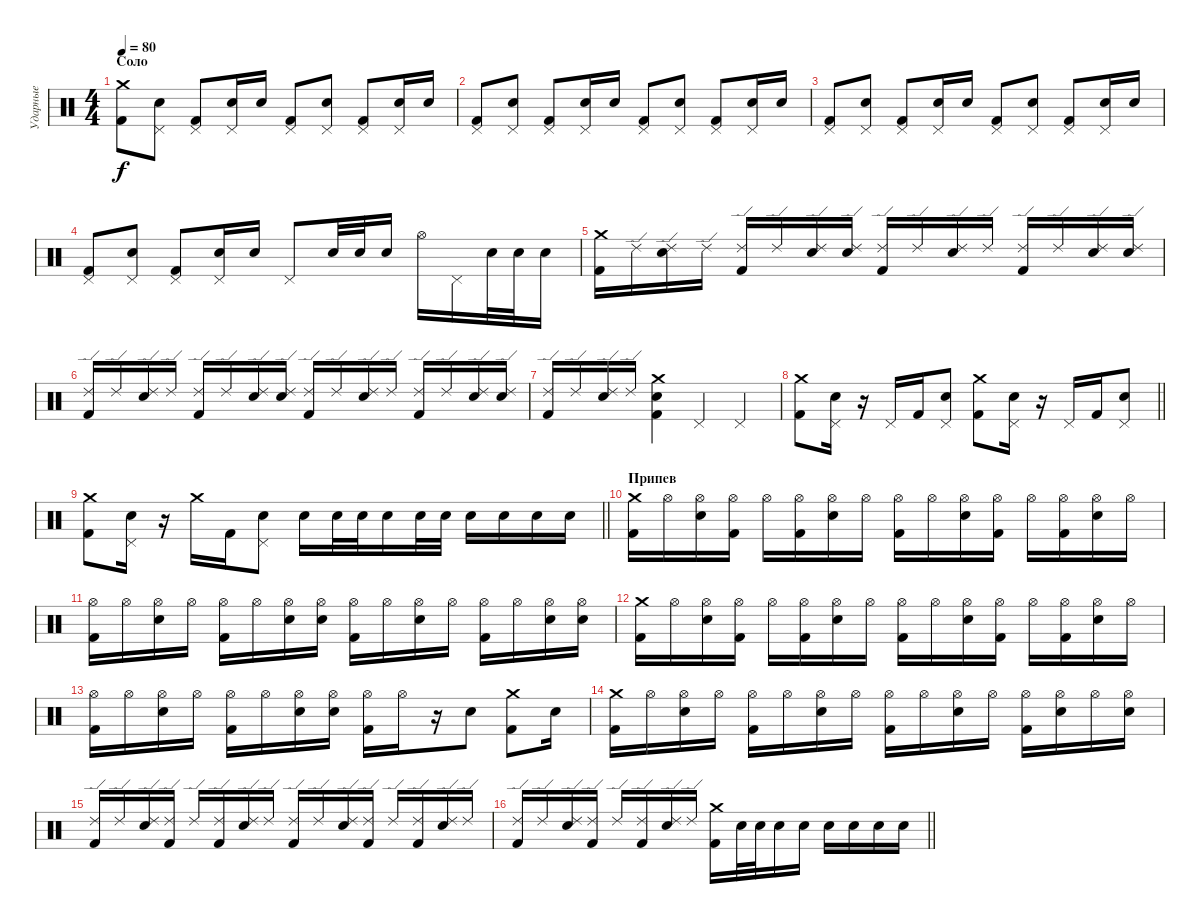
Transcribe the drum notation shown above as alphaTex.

\track ("Ударные" "Ударные") {instrument percussion}
\staff {score}
\articulation defaults
\ts (4 4)
\section ("" "Соло")
\tempo 80
\clef neutral
\ks c
("Crash medium (hit)" "Kick (hit) 2").8{dy f} ("Pedal Hi-Hat (hit)" "Electric Snare (hit)").8 ("Pedal Hi-Hat (hit)" "Kick (hit) 2").8 ("Pedal Hi-Hat (hit)" "Electric Snare (hit)").16 "Electric Snare (hit)".16 ("Pedal Hi-Hat (hit)" "Kick (hit) 2").8 ("Pedal Hi-Hat (hit)" "Electric Snare (hit)").8 ("Pedal Hi-Hat (hit)" "Kick (hit) 2").8 ("Pedal Hi-Hat (hit)" "Electric Snare (hit)").16 "Electric Snare (hit)".16 |
("Pedal Hi-Hat (hit)" "Kick (hit) 2").8 ("Pedal Hi-Hat (hit)" "Electric Snare (hit)").8 ("Pedal Hi-Hat (hit)" "Kick (hit) 2").8 ("Pedal Hi-Hat (hit)" "Electric Snare (hit)").16 "Electric Snare (hit)".16 ("Pedal Hi-Hat (hit)" "Kick (hit) 2").8 ("Pedal Hi-Hat (hit)" "Electric Snare (hit)").8 ("Pedal Hi-Hat (hit)" "Kick (hit) 2").8 ("Pedal Hi-Hat (hit)" "Electric Snare (hit)").16 "Electric Snare (hit)".16 |
("Pedal Hi-Hat (hit)" "Kick (hit) 2").8 ("Pedal Hi-Hat (hit)" "Electric Snare (hit)").8 ("Pedal Hi-Hat (hit)" "Kick (hit) 2").8 ("Pedal Hi-Hat (hit)" "Electric Snare (hit)").16 "Electric Snare (hit)".16 ("Pedal Hi-Hat (hit)" "Kick (hit) 2").8 ("Pedal Hi-Hat (hit)" "Electric Snare (hit)").8 ("Pedal Hi-Hat (hit)" "Kick (hit) 2").8 ("Pedal Hi-Hat (hit)" "Electric Snare (hit)").16 "Electric Snare (hit)".16 |
("Pedal Hi-Hat (hit)" "Kick (hit) 2").8 ("Pedal Hi-Hat (hit)" "Electric Snare (hit)").8 ("Pedal Hi-Hat (hit)" "Kick (hit) 2").8 ("Pedal Hi-Hat (hit)" "Electric Snare (hit)").16 "Electric Snare (hit)".16 "Pedal Hi-Hat (hit)".8 "Electric Snare (hit)".32 "Electric Snare (hit)".32 "Electric Snare (hit)".16 "Hi-Hat (open)".16 "Pedal Hi-Hat (hit)".16 "Electric Snare (hit)".32 "Electric Snare (hit)".32 "Electric Snare (hit)".16 |
("Crash medium (hit)" "Kick (hit) 2").16 "Ride (edge) 2".16 ("Ride (edge) 2" "Electric Snare (hit)").16 "Ride (edge) 2".16 ("Ride (edge) 2" "Kick (hit) 2").16 "Ride (edge) 2".16 ("Ride (edge) 2" "Electric Snare (hit)").16 ("Ride (edge) 2" "Electric Snare (hit)").16 ("Ride (edge) 2" "Kick (hit) 2").16 "Ride (edge) 2".16 ("Ride (edge) 2" "Electric Snare (hit)").16 "Ride (edge) 2".16 ("Ride (edge) 2" "Kick (hit) 2").16 "Ride (edge) 2".16 ("Ride (edge) 2" "Electric Snare (hit)").16 ("Ride (edge) 2" "Electric Snare (hit)").16 |
("Ride (edge) 2" "Kick (hit) 2").16 "Ride (edge) 2".16 ("Ride (edge) 2" "Electric Snare (hit)").16 "Ride (edge) 2".16 ("Ride (edge) 2" "Kick (hit) 2").16 "Ride (edge) 2".16 ("Ride (edge) 2" "Electric Snare (hit)").16 ("Ride (edge) 2" "Electric Snare (hit)").16 ("Ride (edge) 2" "Kick (hit) 2").16 "Ride (edge) 2".16 ("Ride (edge) 2" "Electric Snare (hit)").16 "Ride (edge) 2".16 ("Ride (edge) 2" "Kick (hit) 2").16 "Ride (edge) 2".16 ("Ride (edge) 2" "Electric Snare (hit)").16 ("Ride (edge) 2" "Electric Snare (hit)").16 |
("Ride (edge) 2" "Kick (hit) 2").16 "Ride (edge) 2".16 ("Ride (edge) 2" "Electric Snare (hit)").16 "Ride (edge) 2".16 ("Crash medium (hit)" "Electric Snare (hit)" "Kick (hit) 2").4 "Pedal Hi-Hat (hit)".4 "Pedal Hi-Hat (hit)".4 |
\barLineRight lightlight
("Crash medium (hit)" "Kick (hit) 2").8 ("Pedal Hi-Hat (hit)" "Electric Snare (hit)").16 r.16 "Pedal Hi-Hat (hit)".16 "Kick (hit) 2".16 ("Pedal Hi-Hat (hit)" "Electric Snare (hit)").8 ("Crash medium (hit)" "Kick (hit) 2").8 ("Pedal Hi-Hat (hit)" "Electric Snare (hit)").16 r.16 "Pedal Hi-Hat (hit)".16 "Kick (hit) 2".16 ("Pedal Hi-Hat (hit)" "Electric Snare (hit)").8 |
\barLineRight lightlight
("Crash medium (hit)" "Kick (hit) 2").8 ("Pedal Hi-Hat (hit)" "Electric Snare (hit)").16 r.16 "Crash medium (hit)".16 "Kick (hit) 2".16 ("Pedal Hi-Hat (hit)" "Electric Snare (hit)").8 "Electric Snare (hit)".16 "Electric Snare (hit)".32 "Electric Snare (hit)".32 "Electric Snare (hit)".16 "Electric Snare (hit)".32 "Electric Snare (hit)".32 "Electric Snare (hit)".16 "Electric Snare (hit)".16 "Electric Snare (hit)".16 "Electric Snare (hit)".16 |
\section ("" "Припев")
("Crash medium (hit)" "Kick (hit) 2").16 "Hi-Hat (open)".16 ("Hi-Hat (open)" "Electric Snare (hit)").16 ("Hi-Hat (open)" "Kick (hit) 2").16 "Hi-Hat (open)".16 ("Hi-Hat (open)" "Kick (hit) 2").16 ("Hi-Hat (open)" "Electric Snare (hit)").16 "Hi-Hat (open)".16 ("Hi-Hat (open)" "Kick (hit) 2").16 "Hi-Hat (open)".16 ("Hi-Hat (open)" "Electric Snare (hit)").16 ("Hi-Hat (open)" "Kick (hit) 2").16 "Hi-Hat (open)".16 ("Hi-Hat (open)" "Kick (hit) 2").16 ("Hi-Hat (open)" "Electric Snare (hit)").16 "Hi-Hat (open)".16 |
("Hi-Hat (open)" "Kick (hit) 2").16 "Hi-Hat (open)".16 ("Hi-Hat (open)" "Electric Snare (hit)").16 "Hi-Hat (open)".16 ("Hi-Hat (open)" "Kick (hit) 2").16 "Hi-Hat (open)".16 ("Hi-Hat (open)" "Electric Snare (hit)").16 ("Hi-Hat (open)" "Electric Snare (hit)").16 ("Hi-Hat (open)" "Kick (hit) 2").16 "Hi-Hat (open)".16 ("Hi-Hat (open)" "Electric Snare (hit)").16 "Hi-Hat (open)".16 ("Hi-Hat (open)" "Kick (hit) 2").16 "Hi-Hat (open)".16 ("Hi-Hat (open)" "Electric Snare (hit)").16 ("Hi-Hat (open)" "Electric Snare (hit)").16 |
("Crash medium (hit)" "Kick (hit) 2").16 "Hi-Hat (open)".16 ("Hi-Hat (open)" "Electric Snare (hit)").16 ("Hi-Hat (open)" "Kick (hit) 2").16 "Hi-Hat (open)".16 ("Hi-Hat (open)" "Kick (hit) 2").16 ("Hi-Hat (open)" "Electric Snare (hit)").16 "Hi-Hat (open)".16 ("Hi-Hat (open)" "Kick (hit) 2").16 "Hi-Hat (open)".16 ("Hi-Hat (open)" "Electric Snare (hit)").16 ("Hi-Hat (open)" "Kick (hit) 2").16 "Hi-Hat (open)".16 ("Hi-Hat (open)" "Kick (hit) 2").16 ("Hi-Hat (open)" "Electric Snare (hit)").16 "Hi-Hat (open)".16 |
("Hi-Hat (open)" "Kick (hit) 2").16 "Hi-Hat (open)".16 ("Hi-Hat (open)" "Electric Snare (hit)").16 "Hi-Hat (open)".16 ("Hi-Hat (open)" "Kick (hit) 2").16 "Hi-Hat (open)".16 ("Hi-Hat (open)" "Electric Snare (hit)").16 ("Hi-Hat (open)" "Electric Snare (hit)").16 ("Hi-Hat (open)" "Kick (hit) 2").16 "Hi-Hat (open)".16 r.16 "Electric Snare (hit)".8 ("Crash medium (hit)" "Kick (hit) 2").8 "Electric Snare (hit)".16 |
("Crash medium (hit)" "Kick (hit) 2").16 "Hi-Hat (open)".16 ("Hi-Hat (open)" "Electric Snare (hit)").16 "Hi-Hat (open)".16 ("Hi-Hat (open)" "Kick (hit) 2").16 "Hi-Hat (open)".16 ("Hi-Hat (open)" "Electric Snare (hit)").16 "Hi-Hat (open)".16 ("Hi-Hat (open)" "Kick (hit) 2").16 "Hi-Hat (open)".16 ("Hi-Hat (open)" "Electric Snare (hit)").16 "Hi-Hat (open)".16 ("Hi-Hat (open)" "Kick (hit) 2").16 ("Hi-Hat (open)" "Electric Snare (hit)").16 "Hi-Hat (open)".16 ("Hi-Hat (open)" "Electric Snare (hit)").16 |
("Ride (edge) 2" "Kick (hit) 2").16 "Ride (edge) 2".16 ("Ride (edge) 2" "Electric Snare (hit)").16 ("Ride (edge) 2" "Kick (hit) 2").16 "Ride (edge) 2".16 ("Ride (edge) 2" "Kick (hit) 2").16 ("Ride (edge) 2" "Electric Snare (hit)").16 "Ride (edge) 2".16 ("Ride (edge) 2" "Kick (hit) 2").16 "Ride (edge) 2".16 ("Ride (edge) 2" "Electric Snare (hit)").16 ("Ride (edge) 2" "Kick (hit) 2").16 "Ride (edge) 2".16 ("Ride (edge) 2" "Kick (hit) 2").16 ("Ride (edge) 2" "Electric Snare (hit)").16 "Ride (edge) 2".16 |
\barLineRight lightlight
("Ride (edge) 2" "Kick (hit) 2").16 "Ride (edge) 2".16 ("Ride (edge) 2" "Electric Snare (hit)").16 ("Ride (edge) 2" "Kick (hit) 2").16 "Ride (edge) 2".16 ("Ride (edge) 2" "Kick (hit) 2").16 ("Ride (edge) 2" "Electric Snare (hit)").16 "Ride (edge) 2".16 ("Crash medium (hit)" "Kick (hit) 2").16 "Electric Snare (hit)".32 "Electric Snare (hit)".32 "Electric Snare (hit)".16 "Electric Snare (hit)".16 "Electric Snare (hit)".16 "Electric Snare (hit)".16 "Electric Snare (hit)".16 "Electric Snare (hit)".16
